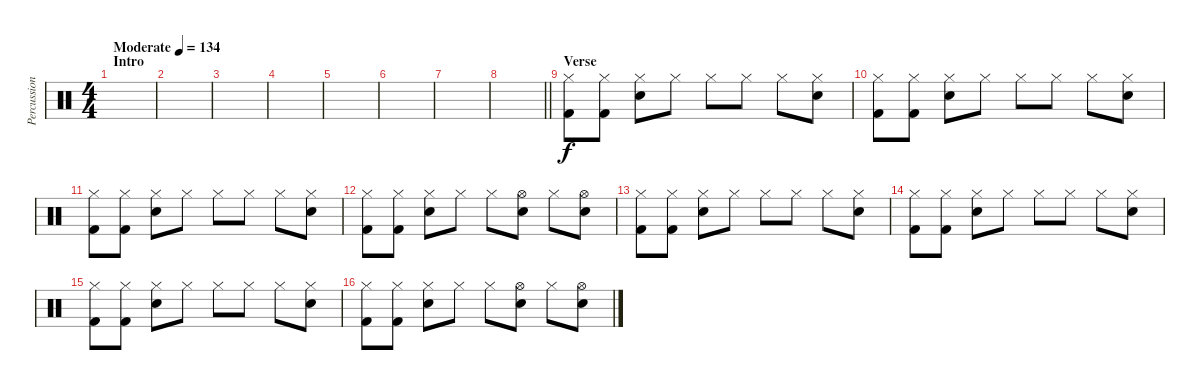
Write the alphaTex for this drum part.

\track ("Percussion" "Percussion") {instrument percussion}
\staff {score}
\articulation defaults
\ts (4 4)
\section ("" "Intro")
\tempo (134 "Moderate")
\clef neutral
\ks c
|
|
|
|
|
|
|
\barLineRight lightlight
|
\section ("" "Verse")
("Hi-Hat (closed)" "Kick (hit) 2").8 ("Hi-Hat (closed)" "Kick (hit) 2").8 ("Hi-Hat (closed)" "Snare (hit) 2").8 "Hi-Hat (closed)".8 "Hi-Hat (closed)".8 "Hi-Hat (closed)".8 "Hi-Hat (closed)".8 ("Hi-Hat (closed)" "Snare (hit) 2").8 |
("Hi-Hat (closed)" "Kick (hit) 2").8 ("Hi-Hat (closed)" "Kick (hit) 2").8 ("Hi-Hat (closed)" "Snare (hit) 2").8 "Hi-Hat (closed)".8 "Hi-Hat (closed)".8 "Hi-Hat (closed)".8 "Hi-Hat (closed)".8 ("Hi-Hat (closed)" "Snare (hit) 2").8 |
("Hi-Hat (closed)" "Kick (hit) 2").8 ("Hi-Hat (closed)" "Kick (hit) 2").8 ("Hi-Hat (closed)" "Snare (hit) 2").8 "Hi-Hat (closed)".8 "Hi-Hat (closed)".8 "Hi-Hat (closed)".8 "Hi-Hat (closed)".8 ("Hi-Hat (closed)" "Snare (hit) 2").8 |
("Hi-Hat (closed)" "Kick (hit) 2").8 ("Hi-Hat (closed)" "Kick (hit) 2").8 ("Hi-Hat (closed)" "Snare (hit) 2").8 "Hi-Hat (closed)".8 "Hi-Hat (closed)".8 ("Hi-Hat (open)" "Snare (hit) 2").8 "Hi-Hat (closed)".8 ("Hi-Hat (open)" "Snare (hit) 2").8 |
("Hi-Hat (closed)" "Kick (hit) 2").8 ("Hi-Hat (closed)" "Kick (hit) 2").8 ("Hi-Hat (closed)" "Snare (hit) 2").8 "Hi-Hat (closed)".8 "Hi-Hat (closed)".8 "Hi-Hat (closed)".8 "Hi-Hat (closed)".8 ("Hi-Hat (closed)" "Snare (hit) 2").8 |
("Hi-Hat (closed)" "Kick (hit) 2").8 ("Hi-Hat (closed)" "Kick (hit) 2").8 ("Hi-Hat (closed)" "Snare (hit) 2").8 "Hi-Hat (closed)".8 "Hi-Hat (closed)".8 "Hi-Hat (closed)".8 "Hi-Hat (closed)".8 ("Hi-Hat (closed)" "Snare (hit) 2").8 |
("Hi-Hat (closed)" "Kick (hit) 2").8 ("Hi-Hat (closed)" "Kick (hit) 2").8 ("Hi-Hat (closed)" "Snare (hit) 2").8 "Hi-Hat (closed)".8 "Hi-Hat (closed)".8 "Hi-Hat (closed)".8 "Hi-Hat (closed)".8 ("Hi-Hat (closed)" "Snare (hit) 2").8 |
("Hi-Hat (closed)" "Kick (hit) 2").8 ("Hi-Hat (closed)" "Kick (hit) 2").8 ("Hi-Hat (closed)" "Snare (hit) 2").8 "Hi-Hat (closed)".8 "Hi-Hat (closed)".8 ("Hi-Hat (open)" "Snare (hit) 2").8 "Hi-Hat (closed)".8 ("Hi-Hat (open)" "Snare (hit) 2").8
